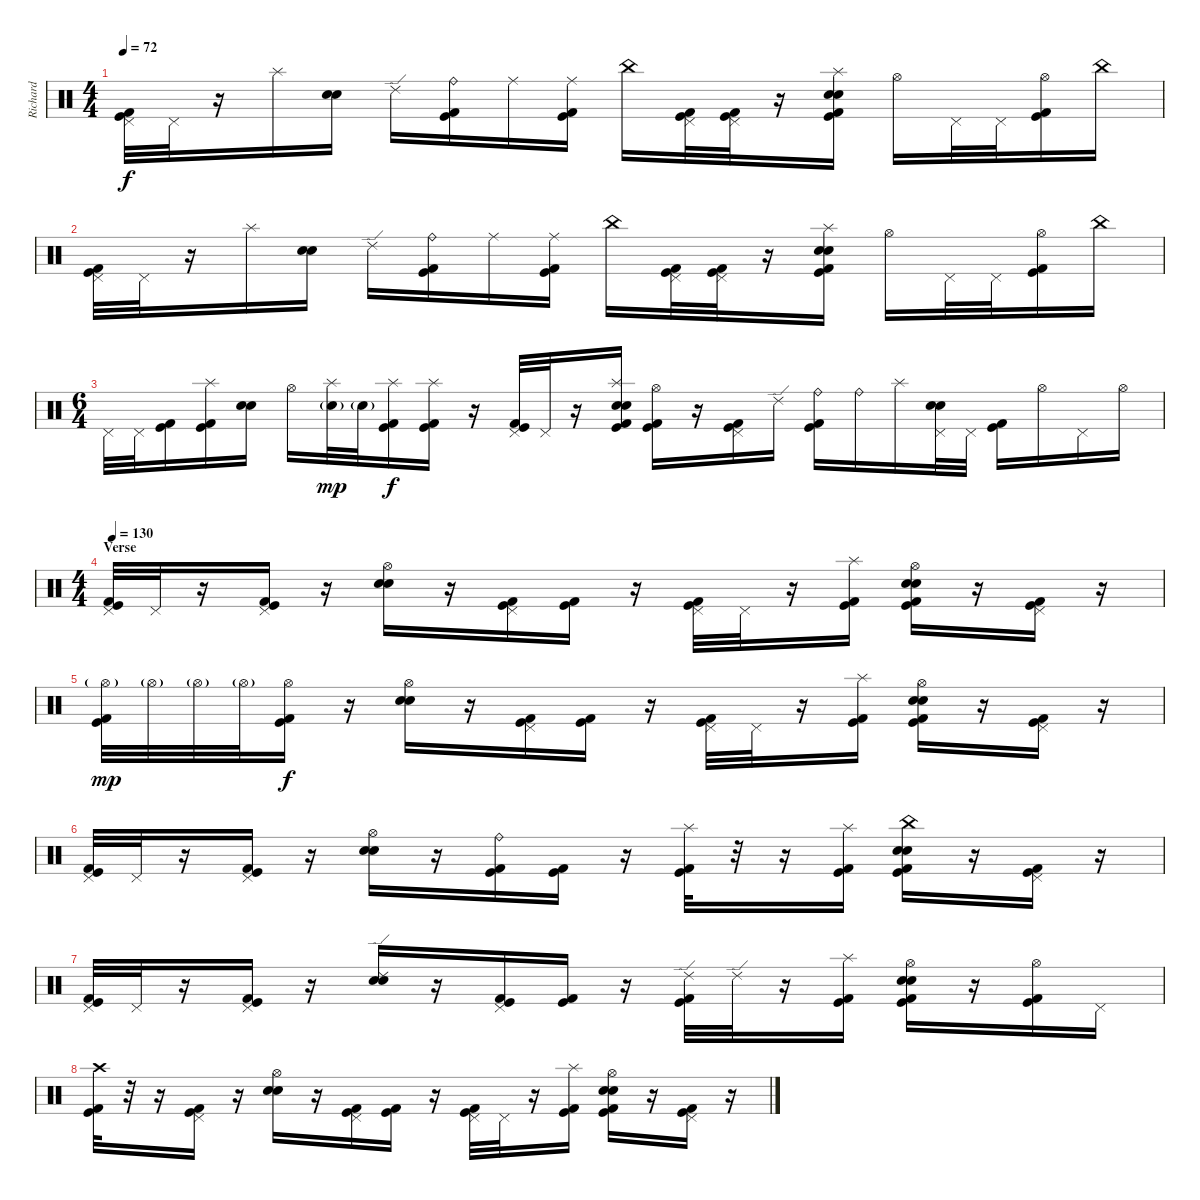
\track ("Richard" "Richard") {instrument percussion}
\staff {score}
\articulation defaults
\ts (4 4)
\tempo 72
\clef neutral
\ks c
("Pedal Hi-Hat (hit)" "Kick (hit)" "Kick (hit) 2").32{dy f} "Pedal Hi-Hat (hit)".32 r.16 "Splash (hit)".16 ("Snare (hit) 2" "Electric Snare (hit)").16 "Ride (edge) 2".16 ("Ride (bell)" "Kick (hit)" "Kick (hit) 2").16 "Ride (middle)".16 ("Ride (middle)" "Kick (hit)" "Kick (hit) 2").16 "China (hit)".16 ("Pedal Hi-Hat (hit)" "Kick (hit)" "Kick (hit) 2").32 ("Pedal Hi-Hat (hit)" "Kick (hit)" "Kick (hit) 2").32 r.16 ("Splash (hit)" "Snare (hit) 2" "Electric Snare (hit)" "Kick (hit)" "Kick (hit) 2").16 "Hi-Hat (open)".16 "Pedal Hi-Hat (hit)".32 "Pedal Hi-Hat (hit)".32 ("Hi-Hat (open)" "Kick (hit)" "Kick (hit) 2").16 "China (hit)".16 |
("Pedal Hi-Hat (hit)" "Kick (hit)" "Kick (hit) 2").32 "Pedal Hi-Hat (hit)".32 r.16 "Splash (hit)".16 ("Snare (hit) 2" "Electric Snare (hit)").16 "Ride (edge) 2".16 ("Ride (bell)" "Kick (hit)" "Kick (hit) 2").16 "Ride (middle)".16 ("Ride (middle)" "Kick (hit)" "Kick (hit) 2").16 "China (hit)".16 ("Pedal Hi-Hat (hit)" "Kick (hit)" "Kick (hit) 2").32 ("Pedal Hi-Hat (hit)" "Kick (hit)" "Kick (hit) 2").32 r.16 ("Splash (hit)" "Snare (hit) 2" "Electric Snare (hit)" "Kick (hit)" "Kick (hit) 2").16 "Hi-Hat (open)".16 "Pedal Hi-Hat (hit)".32 "Pedal Hi-Hat (hit)".32 ("Hi-Hat (open)" "Kick (hit)" "Kick (hit) 2").16 "China (hit)".16 |
\ts (6 4)
"Pedal Hi-Hat (hit)".32 "Pedal Hi-Hat (hit)".32 ("Kick (hit)" "Kick (hit) 2").16 ("Splash (hit)" "Kick (hit)" "Kick (hit) 2").16 ("Snare (hit) 2" "Electric Snare (hit)").16 "Hi-Hat (open)".16 ("Splash (hit)" "Snare (hit) 2"{g}).32{dy mp} "Snare (hit) 2"{g}.32 ("Splash (hit)" "Kick (hit)" "Kick (hit) 2").16{dy f} ("Splash (hit)" "Kick (hit)" "Kick (hit) 2").16 r.16 ("Pedal Hi-Hat (hit)" "Kick (hit)" "Kick (hit) 2").32 "Pedal Hi-Hat (hit)".32 r.16 ("Splash (hit)" "Snare (hit) 2" "Electric Snare (hit)" "Kick (hit)" "Kick (hit) 2").16 ("Hi-Hat (open)" "Kick (hit)" "Kick (hit) 2").16 r.16 ("Pedal Hi-Hat (hit)" "Kick (hit)" "Kick (hit) 2").16 "Ride (edge) 2".16 ("Ride (bell)" "Kick (hit)" "Kick (hit) 2").16 "Ride (bell)".16 "Splash (hit)".16 ("Pedal Hi-Hat (hit)" "Snare (hit) 2" "Electric Snare (hit)").32 "Pedal Hi-Hat (hit)".32 ("Kick (hit)" "Kick (hit) 2").16 "Hi-Hat (open)".16 "Pedal Hi-Hat (hit)".16 "Hi-Hat (open)".16 |
\ts (4 4)
\section ("" "Verse")
\tempo 130
("Pedal Hi-Hat (hit)" "Kick (hit)" "Kick (hit) 2").32 "Pedal Hi-Hat (hit)".32 r.16 ("Pedal Hi-Hat (hit)" "Kick (hit)" "Kick (hit) 2").16 r.16 ("Hi-Hat (open)" "Snare (hit) 2" "Electric Snare (hit)").16 r.16 ("Pedal Hi-Hat (hit)" "Kick (hit)" "Kick (hit) 2").16 ("Kick (hit)" "Kick (hit) 2").16 r.16 ("Pedal Hi-Hat (hit)" "Kick (hit)" "Kick (hit) 2").32 "Pedal Hi-Hat (hit)".32 r.16 ("Splash (hit)" "Kick (hit)" "Kick (hit) 2").16 ("Hi-Hat (open)" "Snare (hit) 2" "Electric Snare (hit)" "Kick (hit)" "Kick (hit) 2").16 r.16 ("Pedal Hi-Hat (hit)" "Kick (hit)" "Kick (hit) 2").16 r.16 |
("Hi-Hat (open)"{g} "Kick (hit)" "Kick (hit) 2").32{dy mp} "Hi-Hat (open)"{g}.32 "Hi-Hat (open)"{g}.32 "Hi-Hat (open)"{g}.32 ("Hi-Hat (open)" "Kick (hit)" "Kick (hit) 2").16{dy f} r.16 ("Hi-Hat (open)" "Snare (hit) 2" "Electric Snare (hit)").16 r.16 ("Pedal Hi-Hat (hit)" "Kick (hit)" "Kick (hit) 2").16 ("Kick (hit)" "Kick (hit) 2").16 r.16 ("Pedal Hi-Hat (hit)" "Kick (hit)" "Kick (hit) 2").32 "Pedal Hi-Hat (hit)".32 r.16 ("Splash (hit)" "Kick (hit)" "Kick (hit) 2").16 ("Hi-Hat (open)" "Snare (hit) 2" "Electric Snare (hit)" "Kick (hit)" "Kick (hit) 2").16 r.16 ("Pedal Hi-Hat (hit)" "Kick (hit)" "Kick (hit) 2").16 r.16 |
("Pedal Hi-Hat (hit)" "Kick (hit)" "Kick (hit) 2").32 "Pedal Hi-Hat (hit)".32 r.16 ("Pedal Hi-Hat (hit)" "Kick (hit)" "Kick (hit) 2").16 r.16 ("Hi-Hat (open)" "Snare (hit) 2" "Electric Snare (hit)").16 r.16 ("Ride (bell)" "Kick (hit)" "Kick (hit) 2").16 ("Kick (hit)" "Kick (hit) 2").16 r.16 ("Splash (hit)" "Kick (hit)" "Kick (hit) 2").32 r.32 r.16 ("Splash (hit)" "Kick (hit)" "Kick (hit) 2").16 ("China (hit)" "Snare (hit) 2" "Electric Snare (hit)" "Kick (hit)" "Kick (hit) 2").16 r.16 ("Pedal Hi-Hat (hit)" "Kick (hit)" "Kick (hit) 2").16 r.16 |
("Pedal Hi-Hat (hit)" "Kick (hit)" "Kick (hit) 2").32 "Pedal Hi-Hat (hit)".32 r.16 ("Pedal Hi-Hat (hit)" "Kick (hit)" "Kick (hit) 2").16 r.16 ("Ride (edge) 2" "Snare (hit) 2" "Electric Snare (hit)").16 r.16 ("Pedal Hi-Hat (hit)" "Kick (hit)" "Kick (hit) 2").16 ("Kick (hit)" "Kick (hit) 2").16 r.16 ("Ride (edge) 2" "Kick (hit)" "Kick (hit) 2").32 "Ride (edge) 2".32 r.16 ("Splash (hit)" "Kick (hit)" "Kick (hit) 2").16 ("Hi-Hat (open)" "Snare (hit) 2" "Electric Snare (hit)" "Kick (hit)" "Kick (hit) 2").16 r.16 ("Hi-Hat (open)" "Kick (hit)" "Kick (hit) 2").16 "Pedal Hi-Hat (hit)".16 |
("Crash high (hit)" "Kick (hit)" "Kick (hit) 2").32 r.32 r.16 ("Pedal Hi-Hat (hit)" "Kick (hit)" "Kick (hit) 2").16 r.16 ("Hi-Hat (open)" "Snare (hit) 2" "Electric Snare (hit)").16 r.16 ("Pedal Hi-Hat (hit)" "Kick (hit)" "Kick (hit) 2").16 ("Kick (hit)" "Kick (hit) 2").16 r.16 ("Pedal Hi-Hat (hit)" "Kick (hit)" "Kick (hit) 2").32 "Pedal Hi-Hat (hit)".32 r.16 ("Splash (hit)" "Kick (hit)" "Kick (hit) 2").16 ("Hi-Hat (open)" "Snare (hit) 2" "Electric Snare (hit)" "Kick (hit)" "Kick (hit) 2").16 r.16 ("Pedal Hi-Hat (hit)" "Kick (hit)" "Kick (hit) 2").16 r.16
